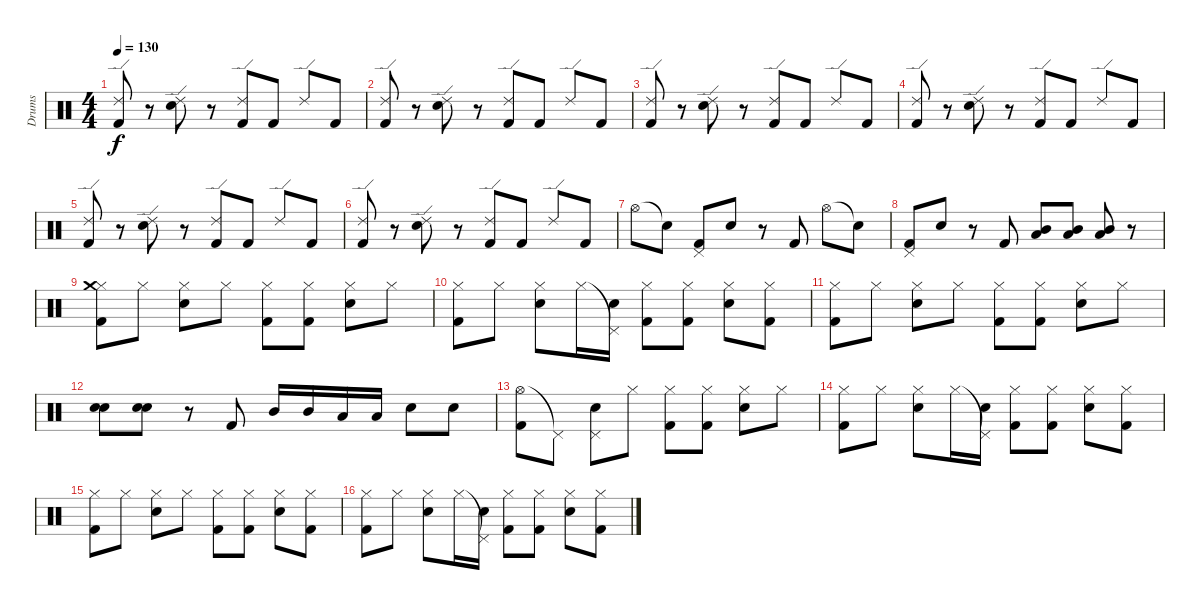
\track ("Drums" "Drums") {instrument percussion}
\staff {score}
\articulation defaults
\ts (4 4)
\tempo 130
\clef neutral
\ks c
("Ride (edge) 2" "Kick (hit) 2").8{dy f} r.8 ("Ride (edge) 2" "Electric Snare (hit)").8 r.8 ("Ride (edge) 2" "Kick (hit) 2").8 "Kick (hit) 2".8 "Ride (edge) 2".8 "Kick (hit) 2".8 |
("Ride (edge) 2" "Kick (hit) 2").8 r.8 ("Ride (edge) 2" "Electric Snare (hit)").8 r.8 ("Ride (edge) 2" "Kick (hit) 2").8 "Kick (hit) 2".8 "Ride (edge) 2".8 "Kick (hit) 2".8 |
("Ride (edge) 2" "Kick (hit) 2").8 r.8 ("Ride (edge) 2" "Electric Snare (hit)").8 r.8 ("Ride (edge) 2" "Kick (hit) 2").8 "Kick (hit) 2".8 "Ride (edge) 2".8 "Kick (hit) 2".8 |
("Ride (edge) 2" "Kick (hit) 2").8 r.8 ("Ride (edge) 2" "Electric Snare (hit)").8 r.8 ("Ride (edge) 2" "Kick (hit) 2").8 "Kick (hit) 2".8 "Ride (edge) 2".8 "Kick (hit) 2".8 |
("Ride (edge) 2" "Kick (hit) 2").8 r.8 ("Ride (edge) 2" "Electric Snare (hit)").8 r.8 ("Ride (edge) 2" "Kick (hit) 2").8 "Kick (hit) 2".8 "Ride (edge) 2".8 "Kick (hit) 2".8 |
("Ride (edge) 2" "Kick (hit) 2").8 r.8 ("Ride (edge) 2" "Electric Snare (hit)").8 r.8 ("Ride (edge) 2" "Kick (hit) 2").8 "Kick (hit) 2".8 "Ride (edge) 2".8 "Kick (hit) 2".8 |
"Hi-Hat (open)".8 "Snare (hit)"{t}.8 ("Kick (hit) 2" "Pedal Hi-Hat (hit)").8 "Electric Snare (hit)".8 r.8 "Kick (hit) 2".8 "Hi-Hat (open)".8 "Snare (hit)"{t}.8 |
("Kick (hit) 2" "Pedal Hi-Hat (hit)").8 "Electric Snare (hit)".8 r.8 "Kick (hit) 2".8 ("Low Tom (hit)" "Mid Tom (hit)").8 ("Low Tom (hit)" "Mid Tom (hit)").8 ("Low Tom (hit)" "Mid Tom (hit)").8 r.8 |
("Hi-Hat (closed)" "Kick (hit) 2" "Crash medium (hit)").8 "Hi-Hat (closed)".8 ("Hi-Hat (closed)" "Electric Snare (hit)").8 "Hi-Hat (closed)".8 ("Hi-Hat (closed)" "Kick (hit) 2").8 ("Hi-Hat (closed)" "Kick (hit) 2").8 ("Hi-Hat (closed)" "Electric Snare (hit)").8 "Hi-Hat (closed)".8 |
("Hi-Hat (closed)" "Kick (hit) 2").8 "Hi-Hat (closed)".8 ("Hi-Hat (closed)" "Electric Snare (hit)").8 "Hi-Hat (closed)".16 ("Pedal Hi-Hat (hit)"{t} "Electric Snare (hit)").16 ("Hi-Hat (closed)" "Kick (hit) 2").8 ("Hi-Hat (closed)" "Kick (hit) 2").8 ("Hi-Hat (closed)" "Electric Snare (hit)").8 ("Hi-Hat (closed)" "Kick (hit) 2").8 |
("Hi-Hat (closed)" "Kick (hit) 2").8 "Hi-Hat (closed)".8 ("Hi-Hat (closed)" "Electric Snare (hit)").8 "Hi-Hat (closed)".8 ("Hi-Hat (closed)" "Kick (hit) 2").8 ("Hi-Hat (closed)" "Kick (hit) 2").8 ("Hi-Hat (closed)" "Electric Snare (hit)").8 "Hi-Hat (closed)".8 |
("Electric Snare (hit)" "Electric Snare (hit)").8 ("Electric Snare (hit)" "Electric Snare (hit)").8 r.8 "Kick (hit) 2".8 "Mid Tom (hit)".16 "Mid Tom (hit)".16 "Low Tom (hit)".16 "Low Tom (hit)".16 "Electric Snare (hit)".8 "Electric Snare (hit)".8 |
("Hi-Hat (open)" "Kick (hit) 2").8 "Pedal Hi-Hat (hit)"{t}.8 ("Pedal Hi-Hat (hit)" "Electric Snare (hit)").8 "Hi-Hat (closed)".8 ("Hi-Hat (closed)" "Kick (hit) 2").8 ("Hi-Hat (closed)" "Kick (hit) 2").8 ("Hi-Hat (closed)" "Electric Snare (hit)").8 "Hi-Hat (closed)".8 |
("Hi-Hat (closed)" "Kick (hit) 2").8 "Hi-Hat (closed)".8 ("Hi-Hat (closed)" "Electric Snare (hit)").8 "Hi-Hat (closed)".16 ("Pedal Hi-Hat (hit)"{t} "Electric Snare (hit)").16 ("Hi-Hat (closed)" "Kick (hit) 2").8 ("Hi-Hat (closed)" "Kick (hit) 2").8 ("Hi-Hat (closed)" "Electric Snare (hit)").8 ("Hi-Hat (closed)" "Kick (hit) 2").8 |
("Hi-Hat (closed)" "Kick (hit) 2").8 "Hi-Hat (closed)".8 ("Hi-Hat (closed)" "Electric Snare (hit)").8 "Hi-Hat (closed)".8 ("Hi-Hat (closed)" "Kick (hit) 2").8 ("Hi-Hat (closed)" "Kick (hit) 2").8 ("Hi-Hat (closed)" "Electric Snare (hit)").8 ("Hi-Hat (closed)" "Kick (hit) 2").8 |
("Hi-Hat (closed)" "Kick (hit) 2").8 "Hi-Hat (closed)".8 ("Hi-Hat (closed)" "Electric Snare (hit)").8 "Hi-Hat (closed)".16 ("Pedal Hi-Hat (hit)"{t} "Electric Snare (hit)").16 ("Hi-Hat (closed)" "Kick (hit) 2").8 ("Hi-Hat (closed)" "Kick (hit) 2").8 ("Hi-Hat (closed)" "Electric Snare (hit)").8 ("Hi-Hat (closed)" "Kick (hit) 2").8
